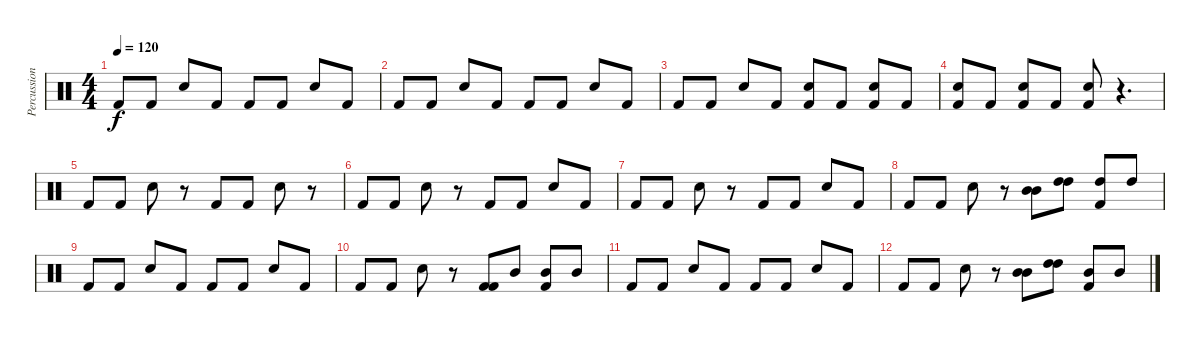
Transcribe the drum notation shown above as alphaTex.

\track ("Percussion" "Percussion") {instrument percussion}
\staff {score}
\articulation defaults
\ts (4 4)
\tempo 120
\clef neutral
\ks c "Kick (hit) 2".8{dy f} "Kick (hit) 2".8 "Snare (hit) 2".8 "Kick (hit) 2".8 "Kick (hit) 2".8 "Kick (hit) 2".8 "Snare (hit) 2".8 "Kick (hit) 2".8
|
"Kick (hit) 2".8 "Kick (hit) 2".8 "Snare (hit) 2".8 "Kick (hit) 2".8 "Kick (hit) 2".8 "Kick (hit) 2".8 "Snare (hit) 2".8 "Kick (hit) 2".8 |
"Kick (hit) 2".8 "Kick (hit) 2".8 "Snare (hit) 2".8 "Kick (hit) 2".8 ("Kick (hit) 2" "Snare (hit) 2").8 "Kick (hit) 2".8 ("Kick (hit) 2" "Snare (hit) 2").8 "Kick (hit) 2".8 |
("Kick (hit) 2" "Snare (hit) 2").8 "Kick (hit) 2".8 ("Kick (hit) 2" "Snare (hit) 2").8 "Kick (hit) 2".8 ("Kick (hit) 2" "Snare (hit) 2").8 r.4{d} |
"Kick (hit) 2".8 "Kick (hit) 2".8 "Snare (hit) 2".8 r.8 "Kick (hit) 2".8 "Kick (hit) 2".8 "Snare (hit) 2".8 r.8 |
"Kick (hit) 2".8 "Kick (hit) 2".8 "Snare (hit) 2".8 r.8 "Kick (hit) 2".8 "Kick (hit) 2".8 "Snare (hit) 2".8 "Kick (hit) 2".8 |
"Kick (hit) 2".8 "Kick (hit) 2".8 "Snare (hit) 2".8 r.8 "Kick (hit) 2".8 "Kick (hit) 2".8 "Snare (hit) 2".8 "Kick (hit) 2".8 |
"Kick (hit) 2".8 "Kick (hit) 2".8 "Snare (hit) 2".8 r.8 ("Mid Tom (hit)" "Mid Tom (hit)").8 ("High Tom (hit)" "High Tom (hit)").8 ("Kick (hit) 2" "High Tom (hit)").8 "High Tom (hit)".8 |
"Kick (hit) 2".8 "Kick (hit) 2".8 "Snare (hit) 2".8 "Kick (hit) 2".8 "Kick (hit) 2".8 "Kick (hit) 2".8 "Snare (hit) 2".8 "Kick (hit) 2".8 |
"Kick (hit) 2".8 "Kick (hit) 2".8 "Snare (hit) 2".8 r.8 ("Kick (hit) 2" "Kick (hit) 2").8 "Mid Tom (hit)".8 ("Kick (hit) 2" "Mid Tom (hit)").8 "Mid Tom (hit)".8 |
"Kick (hit) 2".8 "Kick (hit) 2".8 "Snare (hit) 2".8 "Kick (hit) 2".8 "Kick (hit) 2".8 "Kick (hit) 2".8 "Snare (hit) 2".8 "Kick (hit) 2".8 |
"Kick (hit) 2".8 "Kick (hit) 2".8 "Snare (hit) 2".8 r.8 ("Mid Tom (hit)" "Mid Tom (hit)").8 ("High Tom (hit)" "High Tom (hit)").8 ("Kick (hit) 2" "Mid Tom (hit)").8 "Mid Tom (hit)".8
